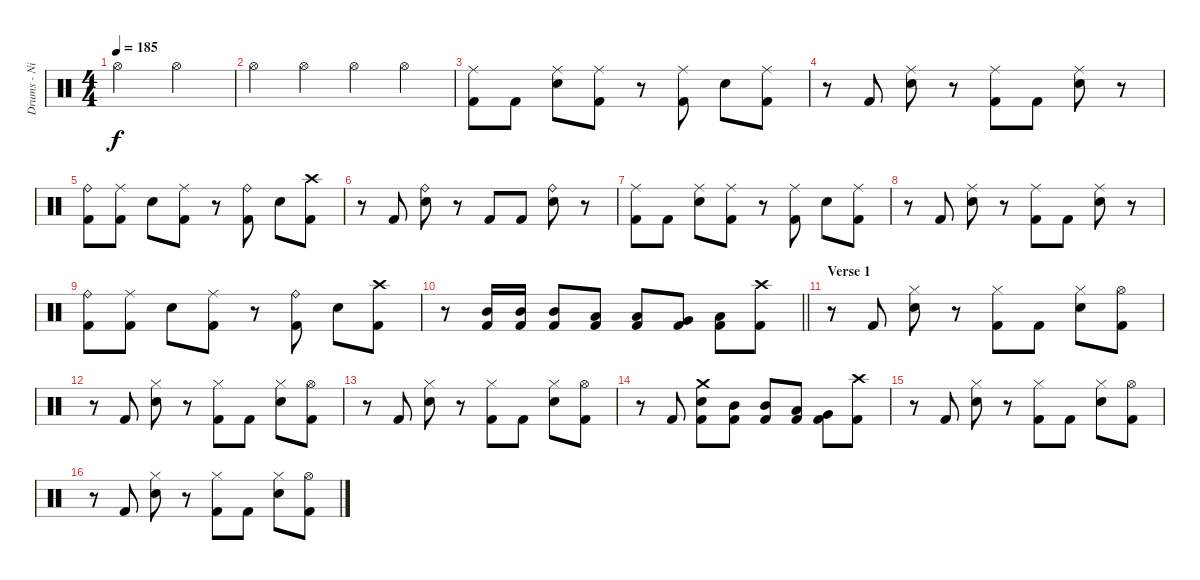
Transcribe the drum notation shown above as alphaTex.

\track ("Drums - Nicko" "Drums - Ni") {instrument percussion}
\staff {score}
\articulation defaults
\ts (4 4)
\tempo 185
\clef neutral
\ks c "Hi-Hat (open)".2{dy f} "Hi-Hat (open)".2
|
"Hi-Hat (open)".4 "Hi-Hat (open)".4 "Hi-Hat (open)".4 "Hi-Hat (open)".4 |
("Ride (middle)" "Kick (hit) 2").8 "Kick (hit) 2".8 ("Ride (middle)" "Snare (hit) 2").8 ("Ride (middle)" "Kick (hit) 2").8 r.8 ("Ride (middle)" "Kick (hit) 2").8 "Snare (hit) 2".8 ("Ride (middle)" "Kick (hit) 2").8 |
r.8 "Kick (hit) 2".8 ("Ride (middle)" "Snare (hit) 2").8 r.8 ("Ride (middle)" "Kick (hit) 2").8 "Kick (hit) 2".8 ("Ride (middle)" "Snare (hit) 2").8 r.8 |
("Ride (bell)" "Kick (hit) 2").8 ("Ride (middle)" "Kick (hit) 2").8 "Snare (hit) 2".8 ("Ride (middle)" "Kick (hit) 2").8 r.8 ("Ride (bell)" "Kick (hit) 2").8 "Snare (hit) 2".8 ("Crash high (hit)" "Kick (hit) 2").8 |
r.8 "Kick (hit) 2".8 ("Ride (bell)" "Snare (hit) 2").8 r.8 "Kick (hit) 2".8 "Kick (hit) 2".8 ("Ride (bell)" "Snare (hit) 2").8 r.8 |
("Ride (middle)" "Kick (hit) 2").8 "Kick (hit) 2".8 ("Ride (middle)" "Snare (hit) 2").8 ("Ride (middle)" "Kick (hit) 2").8 r.8 ("Ride (middle)" "Kick (hit) 2").8 "Snare (hit) 2".8 ("Ride (middle)" "Kick (hit) 2").8 |
r.8 "Kick (hit) 2".8 ("Ride (middle)" "Snare (hit) 2").8 r.8 ("Ride (middle)" "Kick (hit) 2").8 "Kick (hit) 2".8 ("Ride (middle)" "Snare (hit) 2").8 r.8 |
("Ride (bell)" "Kick (hit) 2").8 ("Ride (middle)" "Kick (hit) 2").8 "Snare (hit) 2".8 ("Ride (middle)" "Kick (hit) 2").8 r.8 ("Ride (bell)" "Kick (hit) 2").8 "Snare (hit) 2".8 ("Crash high (hit)" "Kick (hit) 2").8 |
\barLineRight lightlight
r.8 ("Mid Tom (hit)" "Kick (hit) 2").16 ("Mid Tom (hit)" "Kick (hit) 2").16 ("Mid Tom (hit)" "Kick (hit) 2").8 ("Low Tom (hit)" "Kick (hit) 2").8 ("Low Tom (hit)" "Kick (hit) 2").8 ("Very Low Tom (hit)" "Kick (hit) 2").8 ("Low Floor Tom (hit)" "Kick (hit) 2").8 ("Crash high (hit)" "Kick (hit) 2").8 |
\section ("" "Verse 1")
r.8 "Kick (hit) 2".8 ("Hi-Hat (closed)" "Snare (hit) 2").8 r.8 ("Hi-Hat (closed)" "Kick (hit) 2").8 "Kick (hit) 2".8 ("Hi-Hat (closed)" "Snare (hit) 2").8 ("Hi-Hat (open)" "Kick (hit) 2").8 |
r.8 "Kick (hit) 2".8 ("Hi-Hat (closed)" "Snare (hit) 2").8 r.8 ("Hi-Hat (closed)" "Kick (hit) 2").8 "Kick (hit) 2".8 ("Hi-Hat (closed)" "Snare (hit) 2").8 ("Hi-Hat (open)" "Kick (hit) 2").8 |
r.8 "Kick (hit) 2".8 ("Hi-Hat (closed)" "Snare (hit) 2").8 r.8 ("Hi-Hat (closed)" "Kick (hit) 2").8 "Kick (hit) 2".8 ("Hi-Hat (closed)" "Snare (hit) 2").8 ("Hi-Hat (open)" "Kick (hit) 2").8 |
r.8 "Kick (hit) 2".8 ("Crash medium (hit)" "Snare (hit) 2" "Kick (hit) 2").8 ("Mid Tom (hit)" "Kick (hit) 2").8 ("Mid Tom (hit)" "Kick (hit) 2").8 ("Low Tom (hit)" "Kick (hit) 2").8 ("Very Low Tom (hit)" "Kick (hit) 2").8 ("Crash high (hit)" "Kick (hit) 2").8 |
r.8 "Kick (hit) 2".8 ("Hi-Hat (closed)" "Snare (hit) 2").8 r.8 ("Hi-Hat (closed)" "Kick (hit) 2").8 "Kick (hit) 2".8 ("Hi-Hat (closed)" "Snare (hit) 2").8 ("Hi-Hat (open)" "Kick (hit) 2").8 |
r.8 "Kick (hit) 2".8 ("Hi-Hat (closed)" "Snare (hit) 2").8 r.8 ("Hi-Hat (closed)" "Kick (hit) 2").8 "Kick (hit) 2".8 ("Hi-Hat (closed)" "Snare (hit) 2").8 ("Hi-Hat (open)" "Kick (hit) 2").8
